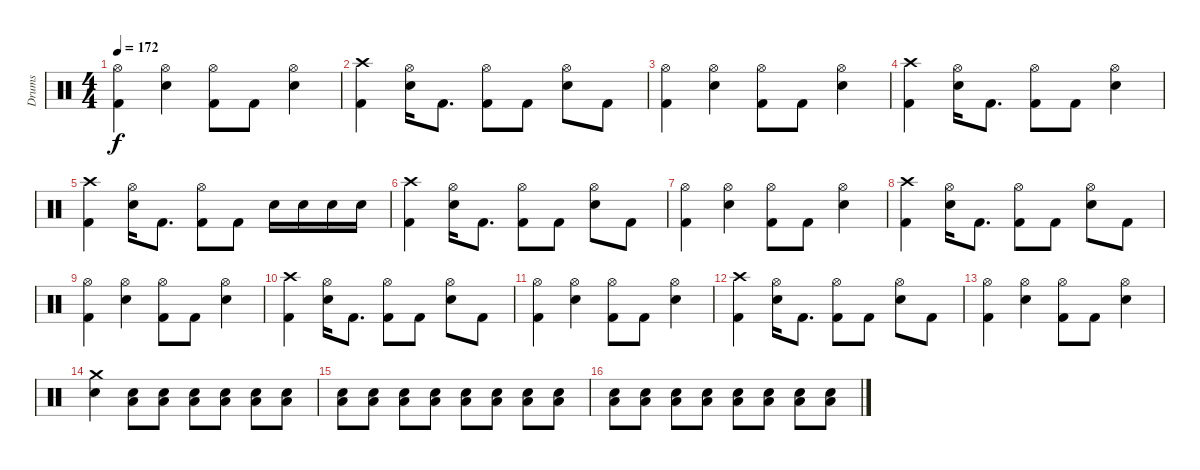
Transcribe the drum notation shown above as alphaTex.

\track ("Drums" "Drums") {instrument percussion}
\staff {score}
\articulation defaults
\ts (4 4)
\tempo 172
\clef neutral
\ks c
("Hi-Hat (open)" "Kick (hit) 2").4{dy f} ("Hi-Hat (open)" "Snare (hit) 2").4 ("Hi-Hat (open)" "Kick (hit) 2").8 "Kick (hit) 2".8 ("Hi-Hat (open)" "Snare (hit) 2").4 |
("Crash high (hit)" "Kick (hit) 2").4 ("Hi-Hat (open)" "Snare (hit) 2").16 "Kick (hit) 2".8{d} ("Hi-Hat (open)" "Kick (hit) 2").8 "Kick (hit) 2".8 ("Hi-Hat (open)" "Snare (hit) 2").8 "Kick (hit) 2".8 |
("Hi-Hat (open)" "Kick (hit) 2").4 ("Hi-Hat (open)" "Snare (hit) 2").4 ("Hi-Hat (open)" "Kick (hit) 2").8 "Kick (hit) 2".8 ("Hi-Hat (open)" "Snare (hit) 2").4 |
("Crash high (hit)" "Kick (hit) 2").4 ("Hi-Hat (open)" "Snare (hit) 2").16 "Kick (hit) 2".8{d} ("Hi-Hat (open)" "Kick (hit) 2").8 "Kick (hit) 2".8 ("Hi-Hat (open)" "Snare (hit) 2").4 |
("Crash high (hit)" "Kick (hit) 2").4 ("Hi-Hat (open)" "Snare (hit) 2").16 "Kick (hit) 2".8{d} ("Hi-Hat (open)" "Kick (hit) 2").8 "Kick (hit) 2".8 "Snare (hit) 2".16 "Snare (hit) 2".16 "Snare (hit) 2".16 "Snare (hit) 2".16 |
("Crash high (hit)" "Kick (hit) 2").4 ("Hi-Hat (open)" "Snare (hit) 2").16 "Kick (hit) 2".8{d} ("Hi-Hat (open)" "Kick (hit) 2").8 "Kick (hit) 2".8 ("Hi-Hat (open)" "Snare (hit) 2").8 "Kick (hit) 2".8 |
("Hi-Hat (open)" "Kick (hit) 2").4 ("Hi-Hat (open)" "Snare (hit) 2").4 ("Hi-Hat (open)" "Kick (hit) 2").8 "Kick (hit) 2".8 ("Hi-Hat (open)" "Snare (hit) 2").4 |
("Crash high (hit)" "Kick (hit) 2").4 ("Hi-Hat (open)" "Snare (hit) 2").16 "Kick (hit) 2".8{d} ("Hi-Hat (open)" "Kick (hit) 2").8 "Kick (hit) 2".8 ("Hi-Hat (open)" "Snare (hit) 2").8 "Kick (hit) 2".8 |
("Hi-Hat (open)" "Kick (hit) 2").4 ("Hi-Hat (open)" "Snare (hit) 2").4 ("Hi-Hat (open)" "Kick (hit) 2").8 "Kick (hit) 2".8 ("Hi-Hat (open)" "Snare (hit) 2").4 |
("Crash high (hit)" "Kick (hit) 2").4 ("Hi-Hat (open)" "Snare (hit) 2").16 "Kick (hit) 2".8{d} ("Hi-Hat (open)" "Kick (hit) 2").8 "Kick (hit) 2".8 ("Hi-Hat (open)" "Snare (hit) 2").8 "Kick (hit) 2".8 |
("Hi-Hat (open)" "Kick (hit) 2").4 ("Hi-Hat (open)" "Snare (hit) 2").4 ("Hi-Hat (open)" "Kick (hit) 2").8 "Kick (hit) 2".8 ("Hi-Hat (open)" "Snare (hit) 2").4 |
("Crash high (hit)" "Kick (hit) 2").4 ("Hi-Hat (open)" "Snare (hit) 2").16 "Kick (hit) 2".8{d} ("Hi-Hat (open)" "Kick (hit) 2").8 "Kick (hit) 2".8 ("Hi-Hat (open)" "Snare (hit) 2").8 "Kick (hit) 2".8 |
("Hi-Hat (open)" "Kick (hit) 2").4 ("Hi-Hat (open)" "Snare (hit) 2").4 ("Hi-Hat (open)" "Kick (hit) 2").8 "Kick (hit) 2".8 ("Hi-Hat (open)" "Snare (hit) 2").4 |
("Snare (hit) 2" "Crash medium (hit)").4 ("Snare (hit) 2" "Low Floor Tom (hit)").8 ("Snare (hit) 2" "Low Floor Tom (hit)").8 ("Snare (hit) 2" "Low Floor Tom (hit)").8 ("Snare (hit) 2" "Low Floor Tom (hit)").8 ("Snare (hit) 2" "Low Floor Tom (hit)").8 ("Snare (hit) 2" "Low Floor Tom (hit)").8 |
("Snare (hit) 2" "Low Floor Tom (hit)").8{volume 11} ("Snare (hit) 2" "Low Floor Tom (hit)").8 ("Snare (hit) 2" "Low Floor Tom (hit)").8 ("Snare (hit) 2" "Low Floor Tom (hit)").8 ("Snare (hit) 2" "Low Floor Tom (hit)").8 ("Snare (hit) 2" "Low Floor Tom (hit)").8 ("Snare (hit) 2" "Low Floor Tom (hit)").8 ("Snare (hit) 2" "Low Floor Tom (hit)").8 |
("Snare (hit) 2" "Low Floor Tom (hit)").8 ("Snare (hit) 2" "Low Floor Tom (hit)").8 ("Snare (hit) 2" "Low Floor Tom (hit)").8 ("Snare (hit) 2" "Low Floor Tom (hit)").8 ("Snare (hit) 2" "Low Floor Tom (hit)").8 ("Snare (hit) 2" "Low Floor Tom (hit)").8 ("Snare (hit) 2" "Low Floor Tom (hit)").8 ("Snare (hit) 2" "Low Floor Tom (hit)").8
